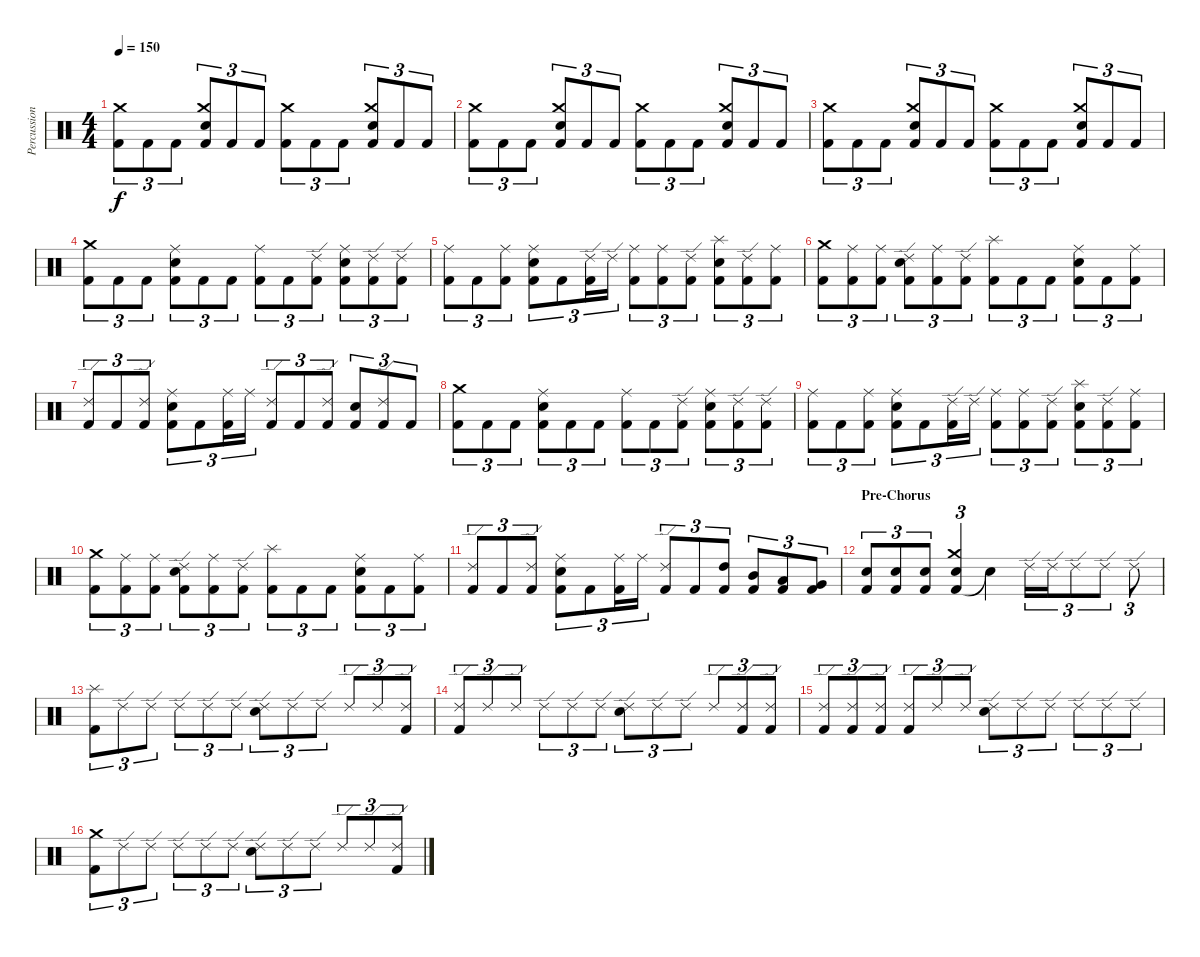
\track ("Percussion" "Percussion") {instrument percussion}
\staff {score}
\articulation defaults
\ts (4 4)
\tempo 150
\clef neutral
\ks c
("Kick (hit) 2" "Crash medium (hit)").8{tu (3 2) dy f} "Kick (hit) 2".8{tu (3 2)} "Kick (hit) 2".8{tu (3 2)} ("Kick (hit) 2" "Electric Snare (hit)" "Crash medium (hit)").8{tu (3 2)} "Kick (hit) 2".8{tu (3 2)} "Kick (hit) 2".8{tu (3 2)} ("Kick (hit) 2" "Crash medium (hit)").8{tu (3 2)} "Kick (hit) 2".8{tu (3 2)} "Kick (hit) 2".8{tu (3 2)} ("Kick (hit) 2" "Electric Snare (hit)" "Crash medium (hit)").8{tu (3 2)} "Kick (hit) 2".8{tu (3 2)} "Kick (hit) 2".8{tu (3 2)} |
("Kick (hit) 2" "Crash medium (hit)").8{tu (3 2)} "Kick (hit) 2".8{tu (3 2)} "Kick (hit) 2".8{tu (3 2)} ("Kick (hit) 2" "Electric Snare (hit)" "Crash medium (hit)").8{tu (3 2)} "Kick (hit) 2".8{tu (3 2)} "Kick (hit) 2".8{tu (3 2)} ("Kick (hit) 2" "Crash medium (hit)").8{tu (3 2)} "Kick (hit) 2".8{tu (3 2)} "Kick (hit) 2".8{tu (3 2)} ("Kick (hit) 2" "Electric Snare (hit)" "Crash medium (hit)").8{tu (3 2)} "Kick (hit) 2".8{tu (3 2)} "Kick (hit) 2".8{tu (3 2)} |
("Kick (hit) 2" "Crash medium (hit)").8{tu (3 2)} "Kick (hit) 2".8{tu (3 2)} "Kick (hit) 2".8{tu (3 2)} ("Kick (hit) 2" "Electric Snare (hit)" "Crash medium (hit)").8{tu (3 2)} "Kick (hit) 2".8{tu (3 2)} "Kick (hit) 2".8{tu (3 2)} ("Kick (hit) 2" "Crash medium (hit)").8{tu (3 2)} "Kick (hit) 2".8{tu (3 2)} "Kick (hit) 2".8{tu (3 2)} ("Kick (hit) 2" "Electric Snare (hit)" "Crash medium (hit)").8{tu (3 2)} "Kick (hit) 2".8{tu (3 2)} "Kick (hit) 2".8{tu (3 2)} |
("Kick (hit) 2" "Crash medium (hit)").8{tu (3 2)} "Kick (hit) 2".8{tu (3 2)} "Kick (hit) 2".8{tu (3 2)} ("Kick (hit) 2" "Electric Snare (hit)" "Ride (middle)").8{tu (3 2)} "Kick (hit) 2".8{tu (3 2)} "Kick (hit) 2".8{tu (3 2)} ("Kick (hit) 2" "Ride (middle)").8{tu (3 2)} "Kick (hit) 2".8{tu (3 2)} ("Kick (hit) 2" "Ride (edge) 2").8{tu (3 2)} ("Kick (hit) 2" "Electric Snare (hit)" "Ride (middle)").8{tu (3 2)} ("Kick (hit) 2" "Ride (edge) 2").8{tu (3 2)} ("Kick (hit) 2" "Ride (edge) 2").8{tu (3 2)} |
("Kick (hit) 2" "Ride (middle)").8{tu (3 2)} "Kick (hit) 2".8{tu (3 2)} ("Kick (hit) 2" "Ride (middle)").8{tu (3 2)} ("Kick (hit) 2" "Electric Snare (hit)" "Ride (middle)").8{tu (3 2)} "Kick (hit) 2".8{tu (3 2)} ("Kick (hit) 2" "Ride (edge) 2").16{tu (3 2)} "Ride (edge) 2".16{tu (3 2)} ("Kick (hit) 2" "Ride (middle)").8{tu (3 2)} ("Kick (hit) 2" "Ride (middle)").8{tu (3 2)} ("Kick (hit) 2" "Ride (edge) 2").8{tu (3 2)} ("Kick (hit) 2" "Electric Snare (hit)" "Splash (hit)").8{tu (3 2)} ("Kick (hit) 2" "Ride (edge) 2").8{tu (3 2)} ("Kick (hit) 2" "Ride (middle)").8{tu (3 2)} |
("Kick (hit) 2" "Crash medium (hit)").8{tu (3 2)} ("Kick (hit) 2" "Ride (middle)").8{tu (3 2)} ("Kick (hit) 2" "Ride (middle)").8{tu (3 2)} ("Kick (hit) 2" "Electric Snare (hit)" "Ride (edge) 2").8{tu (3 2)} ("Kick (hit) 2" "Ride (middle)").8{tu (3 2)} ("Kick (hit) 2" "Ride (edge) 2").8{tu (3 2)} ("Kick (hit) 2" "Splash (hit)").8{tu (3 2)} "Kick (hit) 2".8{tu (3 2)} "Kick (hit) 2".8{tu (3 2)} ("Kick (hit) 2" "Electric Snare (hit)" "Ride (middle)").8{tu (3 2)} "Kick (hit) 2".8{tu (3 2)} ("Kick (hit) 2" "Ride (middle)").8{tu (3 2)} |
("Kick (hit) 2" "Ride (edge) 2").8{tu (3 2)} "Kick (hit) 2".8{tu (3 2)} ("Kick (hit) 2" "Ride (edge) 2").8{tu (3 2)} ("Kick (hit) 2" "Electric Snare (hit)" "Ride (middle)").8{tu (3 2)} "Kick (hit) 2".8{tu (3 2)} ("Kick (hit) 2" "Ride (middle)").16{tu (3 2)} "Ride (middle)".16{tu (3 2)} ("Kick (hit) 2" "Ride (edge) 2").8{tu (3 2)} "Kick (hit) 2".8{tu (3 2)} ("Kick (hit) 2" "Ride (edge) 2").8{tu (3 2)} ("Kick (hit) 2" "Electric Snare (hit)").8{tu (3 2)} ("Kick (hit) 2" "Ride (edge) 2").8{tu (3 2)} "Kick (hit) 2".8{tu (3 2)} |
("Kick (hit) 2" "Crash medium (hit)").8{tu (3 2)} "Kick (hit) 2".8{tu (3 2)} "Kick (hit) 2".8{tu (3 2)} ("Kick (hit) 2" "Electric Snare (hit)" "Ride (middle)").8{tu (3 2)} "Kick (hit) 2".8{tu (3 2)} "Kick (hit) 2".8{tu (3 2)} ("Kick (hit) 2" "Ride (middle)").8{tu (3 2)} "Kick (hit) 2".8{tu (3 2)} ("Kick (hit) 2" "Ride (edge) 2").8{tu (3 2)} ("Kick (hit) 2" "Electric Snare (hit)" "Ride (middle)").8{tu (3 2)} ("Kick (hit) 2" "Ride (edge) 2").8{tu (3 2)} ("Kick (hit) 2" "Ride (edge) 2").8{tu (3 2)} |
("Kick (hit) 2" "Ride (middle)").8{tu (3 2)} "Kick (hit) 2".8{tu (3 2)} ("Kick (hit) 2" "Ride (middle)").8{tu (3 2)} ("Kick (hit) 2" "Electric Snare (hit)" "Ride (middle)").8{tu (3 2)} "Kick (hit) 2".8{tu (3 2)} ("Kick (hit) 2" "Ride (edge) 2").16{tu (3 2)} "Ride (edge) 2".16{tu (3 2)} ("Kick (hit) 2" "Ride (middle)").8{tu (3 2)} ("Kick (hit) 2" "Ride (middle)").8{tu (3 2)} ("Kick (hit) 2" "Ride (edge) 2").8{tu (3 2)} ("Kick (hit) 2" "Electric Snare (hit)" "Splash (hit)").8{tu (3 2)} ("Kick (hit) 2" "Ride (edge) 2").8{tu (3 2)} ("Kick (hit) 2" "Ride (middle)").8{tu (3 2)} |
("Kick (hit) 2" "Crash medium (hit)").8{tu (3 2)} ("Kick (hit) 2" "Ride (middle)").8{tu (3 2)} ("Kick (hit) 2" "Ride (middle)").8{tu (3 2)} ("Kick (hit) 2" "Electric Snare (hit)" "Ride (edge) 2").8{tu (3 2)} ("Kick (hit) 2" "Ride (middle)").8{tu (3 2)} ("Kick (hit) 2" "Ride (edge) 2").8{tu (3 2)} ("Kick (hit) 2" "Splash (hit)").8{tu (3 2)} "Kick (hit) 2".8{tu (3 2)} "Kick (hit) 2".8{tu (3 2)} ("Kick (hit) 2" "Electric Snare (hit)" "Ride (middle)").8{tu (3 2)} "Kick (hit) 2".8{tu (3 2)} ("Kick (hit) 2" "Ride (middle)").8{tu (3 2)} |
("Kick (hit) 2" "Ride (edge) 2").8{tu (3 2)} "Kick (hit) 2".8{tu (3 2)} ("Kick (hit) 2" "Ride (edge) 2").8{tu (3 2)} ("Kick (hit) 2" "Electric Snare (hit)" "Ride (middle)").8{tu (3 2)} "Kick (hit) 2".8{tu (3 2)} ("Kick (hit) 2" "Ride (middle)").16{tu (3 2)} "Ride (middle)".16{tu (3 2)} ("Kick (hit) 2" "Ride (edge) 2").8{tu (3 2)} "Kick (hit) 2".8{tu (3 2)} ("Kick (hit) 2" "High Tom (hit)").8{tu (3 2)} ("Kick (hit) 2" "Mid Tom (hit)").8{tu (3 2)} ("Kick (hit) 2" "Low Tom (hit)").8{tu (3 2)} ("Kick (hit) 2" "Very Low Tom (hit)").8{tu (3 2)} |
\section ("" "Pre-Chorus")
("Kick (hit) 2" "Electric Snare (hit)").8{tu (3 2)} ("Kick (hit) 2" "Electric Snare (hit)").8{tu (3 2)} ("Kick (hit) 2" "Electric Snare (hit)").8{tu (3 2)} ("Kick (hit) 2" "Electric Snare (hit)" "Crash medium (hit)").4{tu (3 2)} "Snare (hit)"{t}.4 "Ride (edge) 2".16{tu (3 2)} "Ride (edge) 2".16{tu (3 2)} "Ride (edge) 2".8{tu (3 2)} "Ride (edge) 2".8{tu (3 2)} "Ride (edge) 2".8{tu (3 2)} |
("Kick (hit) 2" "Splash (hit)").8{tu (3 2)} "Ride (edge) 2".8{tu (3 2)} "Ride (edge) 2".8{tu (3 2)} "Ride (edge) 2".8{tu (3 2)} "Ride (edge) 2".8{tu (3 2)} "Ride (edge) 2".8{tu (3 2)} ("Electric Snare (hit)" "Ride (edge) 2").8{tu (3 2)} "Ride (edge) 2".8{tu (3 2)} "Ride (edge) 2".8{tu (3 2)} "Ride (edge) 2".8{tu (3 2)} "Ride (edge) 2".8{tu (3 2)} ("Kick (hit) 2" "Ride (edge) 2").8{tu (3 2)} |
("Kick (hit) 2" "Ride (edge) 2").8{tu (3 2)} "Ride (edge) 2".8{tu (3 2)} "Ride (edge) 2".8{tu (3 2)} "Ride (edge) 2".8{tu (3 2)} "Ride (edge) 2".8{tu (3 2)} "Ride (edge) 2".8{tu (3 2)} ("Electric Snare (hit)" "Ride (edge) 2").8{tu (3 2)} "Ride (edge) 2".8{tu (3 2)} "Ride (edge) 2".8{tu (3 2)} "Ride (edge) 2".8{tu (3 2)} ("Kick (hit) 2" "Ride (edge) 2").8{tu (3 2)} ("Kick (hit) 2" "Ride (edge) 2").8{tu (3 2)} |
("Kick (hit) 2" "Ride (edge) 2").8{tu (3 2)} ("Kick (hit) 2" "Ride (edge) 2").8{tu (3 2)} ("Kick (hit) 2" "Ride (edge) 2").8{tu (3 2)} ("Kick (hit) 2" "Ride (edge) 2").8{tu (3 2)} "Ride (edge) 2".8{tu (3 2)} "Ride (edge) 2".8{tu (3 2)} ("Electric Snare (hit)" "Ride (edge) 2").8{tu (3 2)} "Ride (edge) 2".8{tu (3 2)} "Ride (edge) 2".8{tu (3 2)} "Ride (edge) 2".8{tu (3 2)} "Ride (edge) 2".8{tu (3 2)} "Ride (edge) 2".8{tu (3 2)} |
("Kick (hit) 2" "Crash medium (hit)").8{tu (3 2)} "Ride (edge) 2".8{tu (3 2)} "Ride (edge) 2".8{tu (3 2)} "Ride (edge) 2".8{tu (3 2)} "Ride (edge) 2".8{tu (3 2)} "Ride (edge) 2".8{tu (3 2)} ("Electric Snare (hit)" "Ride (edge) 2").8{tu (3 2)} "Ride (edge) 2".8{tu (3 2)} "Ride (edge) 2".8{tu (3 2)} "Ride (edge) 2".8{tu (3 2)} "Ride (edge) 2".8{tu (3 2)} ("Kick (hit) 2" "Ride (edge) 2").8{tu (3 2)}
